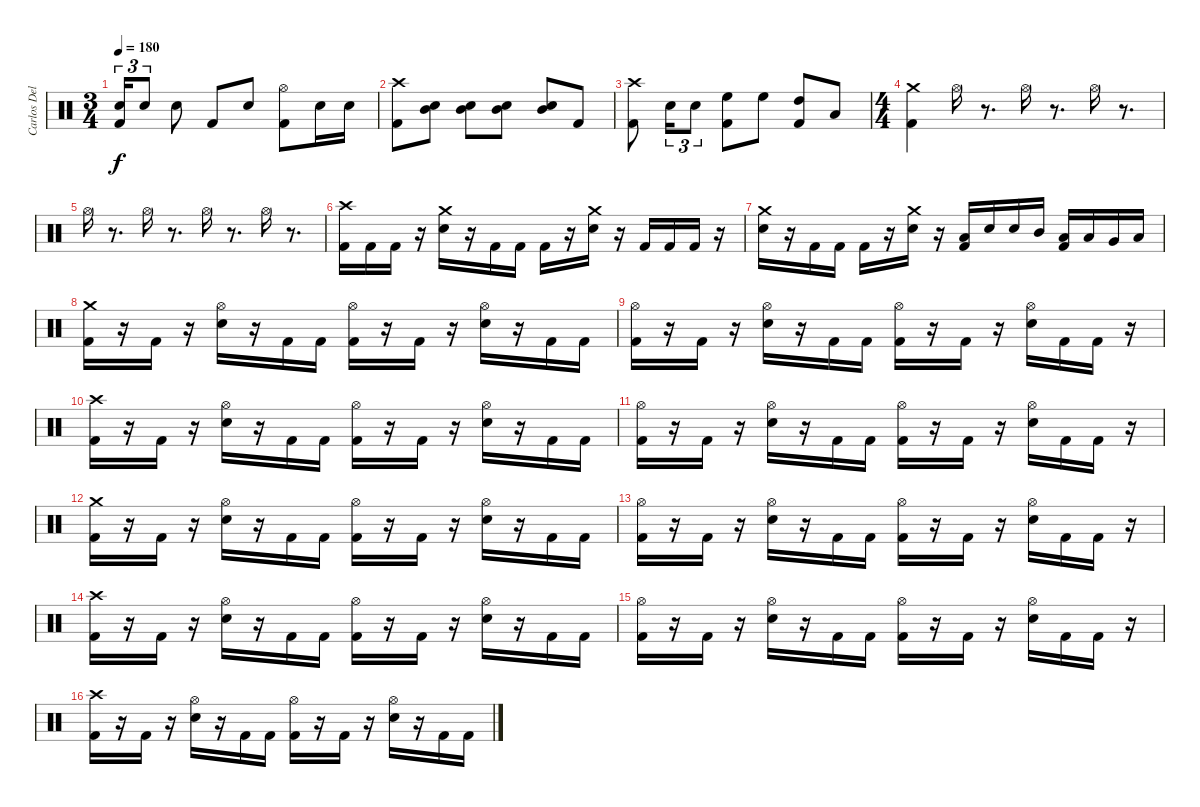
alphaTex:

\track ("Carlos Delgado" "Carlos Del") {instrument percussion}
\staff {score}
\articulation defaults
\ts (3 4)
\tempo 180
\clef neutral
\ks c
("Electric Snare (hit)" "Kick (hit) 2").16{tu (3 2) dy f} "Electric Snare (hit)".8{tu (3 2)} "Electric Snare (hit)".8 "Kick (hit) 2".8 "Electric Snare (hit)".8 ("Hi-Hat (open)" "Kick (hit) 2").8 "Electric Snare (hit)".16 "Electric Snare (hit)".16 |
("Kick (hit) 2" "Crash high (hit)").8 ("Mid Tom (hit)" "Electric Snare (hit)").8 ("Mid Tom (hit)" "Electric Snare (hit)").8 ("Mid Tom (hit)" "Electric Snare (hit)").8 ("Mid Tom (hit)" "Electric Snare (hit)").8 "Kick (hit) 2".8 |
("Crash high (hit)" "Kick (hit) 2").8 "Electric Snare (hit)".16{tu (3 2)} "Electric Snare (hit)".8{tu (3 2)} ("High Floor Tom (hit)" "Kick (hit) 2").8 "High Floor Tom (hit)".8 ("High Tom (hit)" "Kick (hit) 2").8 "Low Tom (hit)".8 |
\ts (4 4)
("Crash medium (hit)" "Kick (hit) 2").4 "Hi-Hat (open)".16 r.8{d} "Hi-Hat (open)".16 r.8{d} "Hi-Hat (open)".16 r.8{d} |
"Hi-Hat (open)".16 r.8{d} "Hi-Hat (open)".16 r.8{d} "Hi-Hat (open)".16 r.8{d} "Hi-Hat (open)".16 r.8{d} |
("Crash high (hit)" "Kick (hit) 2").16 "Kick (hit) 2".16 "Kick (hit) 2".16 r.16 ("Crash medium (hit)" "Electric Snare (hit)").16 r.16 "Kick (hit) 2".16 "Kick (hit) 2".16 "Kick (hit) 2".16 r.16 ("Electric Snare (hit)" "Crash medium (hit)").16 r.16 "Kick (hit) 2".16 "Kick (hit) 2".16 "Kick (hit) 2".16 r.16 |
("Crash medium (hit)" "Electric Snare (hit)").16 r.16 "Kick (hit) 2".16 "Kick (hit) 2".16 "Kick (hit) 2".16 r.16 ("Crash medium (hit)" "Electric Snare (hit)").16 r.16 ("Low Floor Tom (hit)" "Kick (hit) 2").16 "Electric Snare (hit)".16 "Electric Snare (hit)".16 "Mid Tom (hit)".16 ("Low Tom (hit)" "Kick (hit) 2").16 "Low Tom (hit)".16 "Very Low Tom (hit)".16 "Low Floor Tom (hit)".16 |
("Crash medium (hit)" "Kick (hit) 2").16 r.16 "Kick (hit) 2".16 r.16 ("Hi-Hat (open)" "Electric Snare (hit)").16 r.16 "Kick (hit) 2".16 "Kick (hit) 2".16 ("Kick (hit) 2" "Hi-Hat (open)").16 r.16 "Kick (hit) 2".16 r.16 ("Electric Snare (hit)" "Hi-Hat (open)").16 r.16 "Kick (hit) 2".16 "Kick (hit) 2".16 |
("Kick (hit) 2" "Hi-Hat (open)").16 r.16 "Kick (hit) 2".16 r.16 ("Hi-Hat (open)" "Electric Snare (hit)").16 r.16 "Kick (hit) 2".16 "Kick (hit) 2".16 ("Hi-Hat (open)" "Kick (hit) 2").16 r.16 "Kick (hit) 2".16 r.16 ("Electric Snare (hit)" "Hi-Hat (open)").16 "Kick (hit) 2".16 "Kick (hit) 2".16 r.16 |
("Crash high (hit)" "Kick (hit) 2").16 r.16 "Kick (hit) 2".16 r.16 ("Hi-Hat (open)" "Electric Snare (hit)").16 r.16 "Kick (hit) 2".16 "Kick (hit) 2".16 ("Kick (hit) 2" "Hi-Hat (open)").16 r.16 "Kick (hit) 2".16 r.16 ("Electric Snare (hit)" "Hi-Hat (open)").16 r.16 "Kick (hit) 2".16 "Kick (hit) 2".16 |
("Kick (hit) 2" "Hi-Hat (open)").16 r.16 "Kick (hit) 2".16 r.16 ("Hi-Hat (open)" "Electric Snare (hit)").16 r.16 "Kick (hit) 2".16 "Kick (hit) 2".16 ("Hi-Hat (open)" "Kick (hit) 2").16 r.16 "Kick (hit) 2".16 r.16 ("Electric Snare (hit)" "Hi-Hat (open)").16 "Kick (hit) 2".16 "Kick (hit) 2".16 r.16 |
("Crash medium (hit)" "Kick (hit) 2").16 r.16 "Kick (hit) 2".16 r.16 ("Hi-Hat (open)" "Electric Snare (hit)").16 r.16 "Kick (hit) 2".16 "Kick (hit) 2".16 ("Kick (hit) 2" "Hi-Hat (open)").16 r.16 "Kick (hit) 2".16 r.16 ("Electric Snare (hit)" "Hi-Hat (open)").16 r.16 "Kick (hit) 2".16 "Kick (hit) 2".16 |
("Kick (hit) 2" "Hi-Hat (open)").16 r.16 "Kick (hit) 2".16 r.16 ("Hi-Hat (open)" "Electric Snare (hit)").16 r.16 "Kick (hit) 2".16 "Kick (hit) 2".16 ("Hi-Hat (open)" "Kick (hit) 2").16 r.16 "Kick (hit) 2".16 r.16 ("Electric Snare (hit)" "Hi-Hat (open)").16 "Kick (hit) 2".16 "Kick (hit) 2".16 r.16 |
("Crash high (hit)" "Kick (hit) 2").16 r.16 "Kick (hit) 2".16 r.16 ("Hi-Hat (open)" "Electric Snare (hit)").16 r.16 "Kick (hit) 2".16 "Kick (hit) 2".16 ("Kick (hit) 2" "Hi-Hat (open)").16 r.16 "Kick (hit) 2".16 r.16 ("Electric Snare (hit)" "Hi-Hat (open)").16 r.16 "Kick (hit) 2".16 "Kick (hit) 2".16 |
("Kick (hit) 2" "Hi-Hat (open)").16 r.16 "Kick (hit) 2".16 r.16 ("Hi-Hat (open)" "Electric Snare (hit)").16 r.16 "Kick (hit) 2".16 "Kick (hit) 2".16 ("Hi-Hat (open)" "Kick (hit) 2").16 r.16 "Kick (hit) 2".16 r.16 ("Electric Snare (hit)" "Hi-Hat (open)").16 "Kick (hit) 2".16 "Kick (hit) 2".16 r.16 |
("Crash high (hit)" "Kick (hit) 2").16 r.16 "Kick (hit) 2".16 r.16 ("Hi-Hat (open)" "Electric Snare (hit)").16 r.16 "Kick (hit) 2".16 "Kick (hit) 2".16 ("Kick (hit) 2" "Hi-Hat (open)").16 r.16 "Kick (hit) 2".16 r.16 ("Electric Snare (hit)" "Hi-Hat (open)").16 r.16 "Kick (hit) 2".16 "Kick (hit) 2".16
